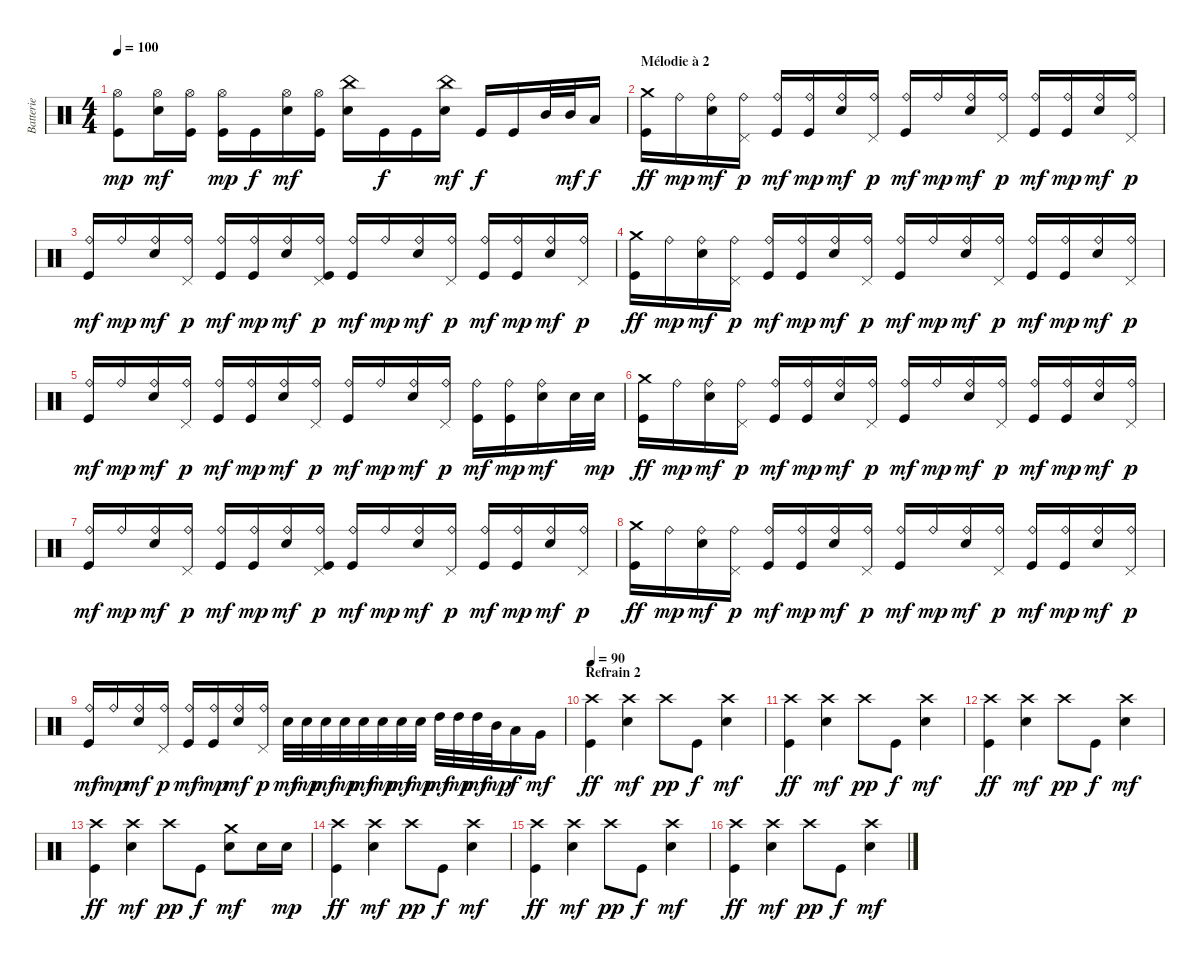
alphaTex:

\track ("Batterie" "Batterie") {instrument percussion}
\staff {score}
\articulation defaults
\ts (4 4)
\tempo 100
\clef neutral
\ks c
("Hi-Hat (open)" "Kick (hit)").8{dy mp} ("Hi-Hat (open)" "Electric Snare (hit)").16{dy mf} ("Hi-Hat (open)" "Kick (hit)").16 ("Hi-Hat (open)" "Kick (hit)").16{dy mp} "Kick (hit)".16{dy f} ("Hi-Hat (open)" "Electric Snare (hit)").16{dy mf} ("Hi-Hat (open)" "Kick (hit)").16 ("China (hit)" "Electric Snare (hit)").16 "Kick (hit)".16{dy f} "Kick (hit)".16 ("China (hit)" "Electric Snare (hit)").16{dy mf} "Kick (hit)".16{dy f} "Kick (hit)".16 "Mid Tom (hit)".32 "Mid Tom (hit)".32{dy mf} "Low Tom (hit)".16{dy f} |
\section ("" "Mélodie à 2")
("Crash medium (hit)" "Kick (hit)").16{dy ff} "Ride (bell)".16{dy mp} ("Ride (bell)" "Electric Snare (hit)").16{dy mf} ("Ride (bell)" "Pedal Hi-Hat (hit)").16{dy p} ("Ride (bell)" "Kick (hit)").16{dy mf} ("Ride (bell)" "Kick (hit)").16{dy mp} ("Ride (bell)" "Electric Snare (hit)").16{dy mf} ("Ride (bell)" "Pedal Hi-Hat (hit)").16{dy p} ("Ride (bell)" "Kick (hit)").16{dy mf} "Ride (bell)".16{dy mp} ("Ride (bell)" "Electric Snare (hit)").16{dy mf} ("Ride (bell)" "Pedal Hi-Hat (hit)").16{dy p} ("Ride (bell)" "Kick (hit)").16{dy mf} ("Ride (bell)" "Kick (hit)").16{dy mp} ("Ride (bell)" "Electric Snare (hit)").16{dy mf} ("Ride (bell)" "Pedal Hi-Hat (hit)").16{dy p} |
("Ride (bell)" "Kick (hit)").16{dy mf} "Ride (bell)".16{dy mp} ("Ride (bell)" "Electric Snare (hit)").16{dy mf} ("Ride (bell)" "Pedal Hi-Hat (hit)").16{dy p} ("Ride (bell)" "Kick (hit)").16{dy mf} ("Ride (bell)" "Kick (hit)").16{dy mp} ("Ride (bell)" "Electric Snare (hit)").16{dy mf} ("Ride (bell)" "Pedal Hi-Hat (hit)" "Kick (hit)").16{dy p} ("Ride (bell)" "Kick (hit)").16{dy mf} "Ride (bell)".16{dy mp} ("Ride (bell)" "Electric Snare (hit)").16{dy mf} ("Ride (bell)" "Pedal Hi-Hat (hit)").16{dy p} ("Ride (bell)" "Kick (hit)").16{dy mf} ("Ride (bell)" "Kick (hit)").16{dy mp} ("Ride (bell)" "Electric Snare (hit)").16{dy mf} ("Ride (bell)" "Pedal Hi-Hat (hit)").16{dy p} |
("Crash medium (hit)" "Kick (hit)").16{dy ff} "Ride (bell)".16{dy mp} ("Ride (bell)" "Electric Snare (hit)").16{dy mf} ("Ride (bell)" "Pedal Hi-Hat (hit)").16{dy p} ("Ride (bell)" "Kick (hit)").16{dy mf} ("Ride (bell)" "Kick (hit)").16{dy mp} ("Ride (bell)" "Electric Snare (hit)").16{dy mf} ("Ride (bell)" "Pedal Hi-Hat (hit)").16{dy p} ("Ride (bell)" "Kick (hit)").16{dy mf} "Ride (bell)".16{dy mp} ("Ride (bell)" "Electric Snare (hit)").16{dy mf} ("Ride (bell)" "Pedal Hi-Hat (hit)").16{dy p} ("Ride (bell)" "Kick (hit)").16{dy mf} ("Ride (bell)" "Kick (hit)").16{dy mp} ("Ride (bell)" "Electric Snare (hit)").16{dy mf} ("Ride (bell)" "Pedal Hi-Hat (hit)").16{dy p} |
("Ride (bell)" "Kick (hit)").16{dy mf} "Ride (bell)".16{dy mp} ("Ride (bell)" "Electric Snare (hit)").16{dy mf} ("Ride (bell)" "Pedal Hi-Hat (hit)").16{dy p} ("Ride (bell)" "Kick (hit)").16{dy mf} ("Ride (bell)" "Kick (hit)").16{dy mp} ("Ride (bell)" "Electric Snare (hit)").16{dy mf} ("Ride (bell)" "Pedal Hi-Hat (hit)").16{dy p} ("Ride (bell)" "Kick (hit)").16{dy mf} "Ride (bell)".16{dy mp} ("Ride (bell)" "Electric Snare (hit)").16{dy mf} ("Ride (bell)" "Pedal Hi-Hat (hit)").16{dy p} ("Ride (bell)" "Kick (hit)").16{dy mf} ("Ride (bell)" "Kick (hit)").16{dy mp} ("Ride (bell)" "Electric Snare (hit)").16{dy mf} "Electric Snare (hit)".32 "Electric Snare (hit)".32{dy mp} |
("Crash medium (hit)" "Kick (hit)").16{dy ff} "Ride (bell)".16{dy mp} ("Ride (bell)" "Electric Snare (hit)").16{dy mf} ("Ride (bell)" "Pedal Hi-Hat (hit)").16{dy p} ("Ride (bell)" "Kick (hit)").16{dy mf} ("Ride (bell)" "Kick (hit)").16{dy mp} ("Ride (bell)" "Electric Snare (hit)").16{dy mf} ("Ride (bell)" "Pedal Hi-Hat (hit)").16{dy p} ("Ride (bell)" "Kick (hit)").16{dy mf} "Ride (bell)".16{dy mp} ("Ride (bell)" "Electric Snare (hit)").16{dy mf} ("Ride (bell)" "Pedal Hi-Hat (hit)").16{dy p} ("Ride (bell)" "Kick (hit)").16{dy mf} ("Ride (bell)" "Kick (hit)").16{dy mp} ("Ride (bell)" "Electric Snare (hit)").16{dy mf} ("Ride (bell)" "Pedal Hi-Hat (hit)").16{dy p} |
("Ride (bell)" "Kick (hit)").16{dy mf} "Ride (bell)".16{dy mp} ("Ride (bell)" "Electric Snare (hit)").16{dy mf} ("Ride (bell)" "Pedal Hi-Hat (hit)").16{dy p} ("Ride (bell)" "Kick (hit)").16{dy mf} ("Ride (bell)" "Kick (hit)").16{dy mp} ("Ride (bell)" "Electric Snare (hit)").16{dy mf} ("Ride (bell)" "Pedal Hi-Hat (hit)" "Kick (hit)").16{dy p} ("Ride (bell)" "Kick (hit)").16{dy mf} "Ride (bell)".16{dy mp} ("Ride (bell)" "Electric Snare (hit)").16{dy mf} ("Ride (bell)" "Pedal Hi-Hat (hit)").16{dy p} ("Ride (bell)" "Kick (hit)").16{dy mf} ("Ride (bell)" "Kick (hit)").16{dy mp} ("Ride (bell)" "Electric Snare (hit)").16{dy mf} ("Ride (bell)" "Pedal Hi-Hat (hit)").16{dy p} |
("Crash medium (hit)" "Kick (hit)").16{dy ff} "Ride (bell)".16{dy mp} ("Ride (bell)" "Electric Snare (hit)").16{dy mf} ("Ride (bell)" "Pedal Hi-Hat (hit)").16{dy p} ("Ride (bell)" "Kick (hit)").16{dy mf} ("Ride (bell)" "Kick (hit)").16{dy mp} ("Ride (bell)" "Electric Snare (hit)").16{dy mf} ("Ride (bell)" "Pedal Hi-Hat (hit)").16{dy p} ("Ride (bell)" "Kick (hit)").16{dy mf} "Ride (bell)".16{dy mp} ("Ride (bell)" "Electric Snare (hit)").16{dy mf} ("Ride (bell)" "Pedal Hi-Hat (hit)").16{dy p} ("Ride (bell)" "Kick (hit)").16{dy mf} ("Ride (bell)" "Kick (hit)").16{dy mp} ("Ride (bell)" "Electric Snare (hit)").16{dy mf} ("Ride (bell)" "Pedal Hi-Hat (hit)").16{dy p} |
("Ride (bell)" "Kick (hit)").16{dy mf} "Ride (bell)".16{dy mp} ("Ride (bell)" "Electric Snare (hit)").16{dy mf} ("Ride (bell)" "Pedal Hi-Hat (hit)").16{dy p} ("Ride (bell)" "Kick (hit)").16{dy mf} ("Ride (bell)" "Kick (hit)").16{dy mp} ("Ride (bell)" "Electric Snare (hit)").16{dy mf} ("Ride (bell)" "Pedal Hi-Hat (hit)").16{dy p} "Electric Snare (hit)".32{dy mf} "Electric Snare (hit)".32{dy mp} "Electric Snare (hit)".32{dy mf} "Electric Snare (hit)".32{dy mp} "Electric Snare (hit)".32{dy mf} "Electric Snare (hit)".32{dy mp} "Electric Snare (hit)".32{dy mf} "Electric Snare (hit)".32{dy mp} "High Tom (hit)".32{dy mf} "High Tom (hit)".32{dy mp} "High Tom (hit)".32{dy mf} "Mid Tom (hit)".32{dy mp} "Low Tom (hit)".16{dy f} "Very Low Tom (hit)".16{dy mf} |
\section ("" "Refrain 2")
\tempo 90
("Crash high (hit)" "Kick (hit)").4{dy ff} ("Crash high (hit)" "Electric Snare (hit)").4{dy mf} "Crash high (hit)".8{dy pp} "Kick (hit)".8{dy f} ("Crash high (hit)" "Electric Snare (hit)").4{dy mf} |
("Crash high (hit)" "Kick (hit)").4{dy ff} ("Crash high (hit)" "Electric Snare (hit)").4{dy mf} "Crash high (hit)".8{dy pp} "Kick (hit)".8{dy f} ("Crash high (hit)" "Electric Snare (hit)").4{dy mf} |
("Crash high (hit)" "Kick (hit)").4{dy ff} ("Crash high (hit)" "Electric Snare (hit)").4{dy mf} "Crash high (hit)".8{dy pp} "Kick (hit)".8{dy f} ("Crash high (hit)" "Electric Snare (hit)").4{dy mf} |
("Crash high (hit)" "Kick (hit)").4{dy ff} ("Crash high (hit)" "Electric Snare (hit)").4{dy mf} "Crash high (hit)".8{dy pp} "Kick (hit)".8{dy f} ("Crash medium (hit)" "Electric Snare (hit)").8{dy mf} "Electric Snare (hit)".16 "Electric Snare (hit)".16{dy mp} |
("Crash high (hit)" "Kick (hit)").4{dy ff} ("Crash high (hit)" "Electric Snare (hit)").4{dy mf} "Crash high (hit)".8{dy pp} "Kick (hit)".8{dy f} ("Crash high (hit)" "Electric Snare (hit)").4{dy mf} |
("Crash high (hit)" "Kick (hit)").4{dy ff} ("Crash high (hit)" "Electric Snare (hit)").4{dy mf} "Crash high (hit)".8{dy pp} "Kick (hit)".8{dy f} ("Crash high (hit)" "Electric Snare (hit)").4{dy mf} |
("Crash high (hit)" "Kick (hit)").4{dy ff} ("Crash high (hit)" "Electric Snare (hit)").4{dy mf} "Crash high (hit)".8{dy pp} "Kick (hit)".8{dy f} ("Crash high (hit)" "Electric Snare (hit)").4{dy mf}
